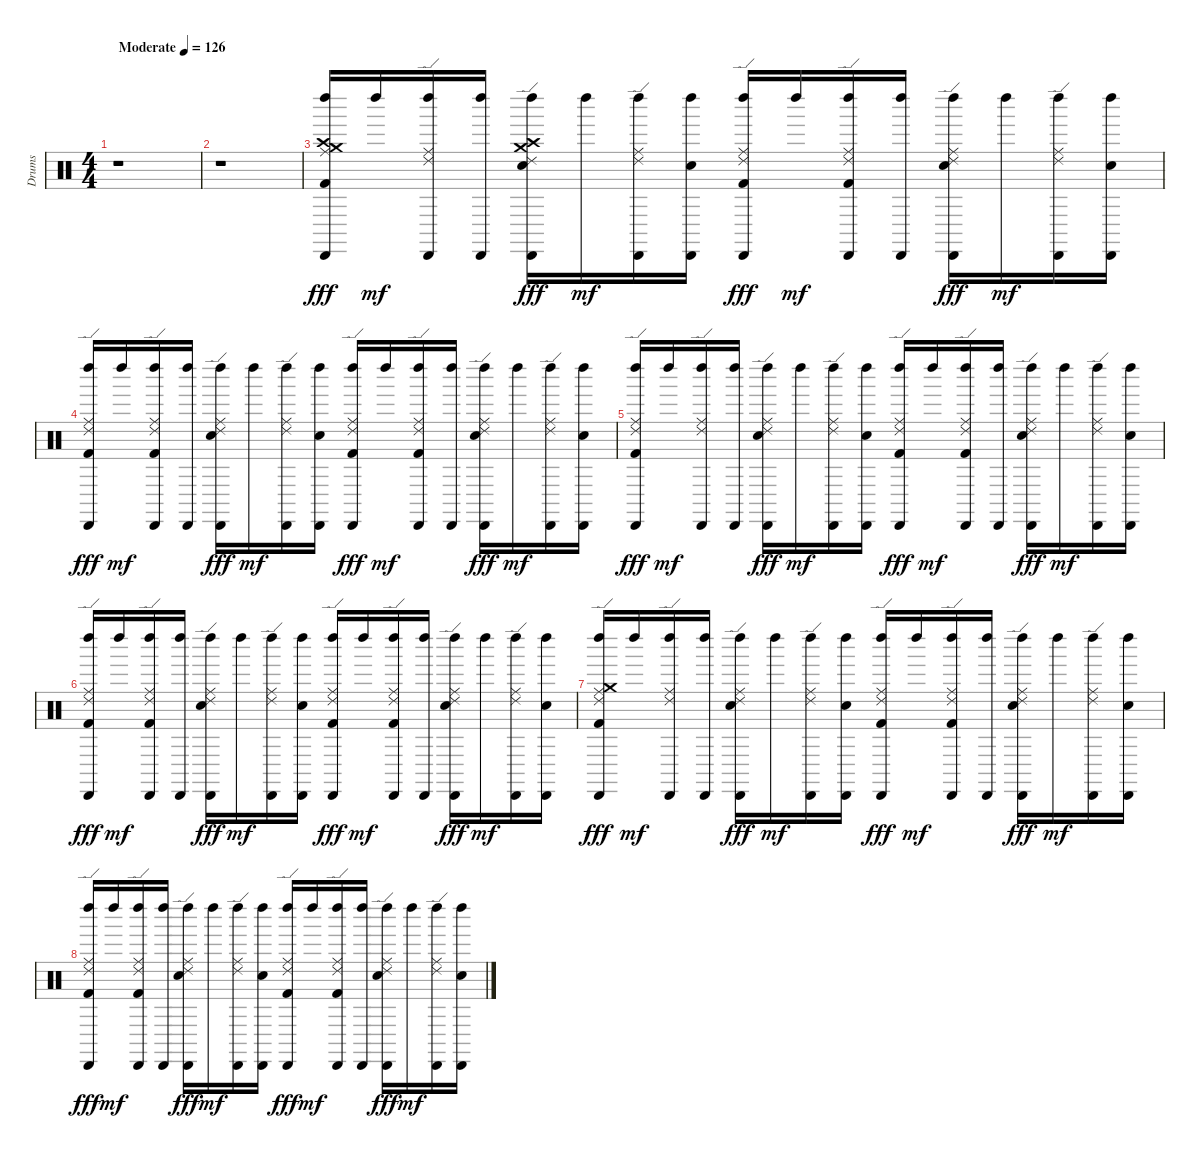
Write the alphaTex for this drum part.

\track ("Drums" "Drums") {instrument percussion}
\staff {score}
\articulation defaults
\ts (4 4)
\tempo (126 "Moderate")
\clef neutral
\ks c
r.1{dy fff} |
r.1 |
("Left Maraca (hit)" "Crash medium (hit)" "Crash high (hit)" "Kick (hit) 2" "Cabasa (hit)" "Ride (middle)").16 "Left Maraca (hit)".16{dy mf} ("Cabasa (hit)" "Left Maraca (hit)" "Ride (edge) 2" "Ride (middle)").16 ("Cabasa (hit)" "Left Maraca (hit)").16 ("Electric Snare (hit)" "Crash medium (hit)" "Crash high (hit)" "Left Maraca (hit)" "Cabasa (hit)" "Ride (edge) 2").16{dy fff} "Left Maraca (hit)".16{dy mf} ("Cabasa (hit)" "Left Maraca (hit)" "Ride (edge) 2" "Ride (middle)").16 ("Cabasa (hit)" "Left Maraca (hit)" "Electric Snare (hit)").16 ("Cabasa (hit)" "Left Maraca (hit)" "Kick (hit) 2" "Ride (middle)" "Ride (edge) 2").16{dy fff} "Left Maraca (hit)".16{dy mf} ("Kick (hit) 2" "Left Maraca (hit)" "Cabasa (hit)" "Ride (middle)" "Ride (edge) 2").16 ("Cabasa (hit)" "Left Maraca (hit)").16 ("Ride (edge) 2" "Electric Snare (hit)" "Ride (middle)" "Cabasa (hit)" "Left Maraca (hit)").16{dy fff} "Left Maraca (hit)".16{dy mf} ("Left Maraca (hit)" "Ride (middle)" "Ride (edge) 2" "Cabasa (hit)").16 ("Electric Snare (hit)" "Left Maraca (hit)" "Cabasa (hit)").16 |
("Cabasa (hit)" "Kick (hit) 2" "Left Maraca (hit)" "Ride (middle)" "Ride (edge) 2").16{dy fff} "Left Maraca (hit)".16{dy mf} ("Kick (hit) 2" "Cabasa (hit)" "Left Maraca (hit)" "Ride (edge) 2" "Ride (middle)").16 ("Cabasa (hit)" "Left Maraca (hit)").16 ("Left Maraca (hit)" "Ride (edge) 2" "Ride (middle)" "Cabasa (hit)" "Electric Snare (hit)").16{dy fff} "Left Maraca (hit)".16{dy mf} ("Ride (edge) 2" "Cabasa (hit)" "Left Maraca (hit)" "Ride (middle)").16 ("Electric Snare (hit)" "Cabasa (hit)" "Left Maraca (hit)").16 ("Kick (hit) 2" "Cabasa (hit)" "Ride (middle)" "Left Maraca (hit)" "Ride (edge) 2").16{dy fff} "Left Maraca (hit)".16{dy mf} ("Cabasa (hit)" "Ride (middle)" "Ride (edge) 2" "Left Maraca (hit)" "Kick (hit) 2").16 ("Left Maraca (hit)" "Cabasa (hit)").16 ("Ride (edge) 2" "Electric Snare (hit)" "Left Maraca (hit)" "Cabasa (hit)" "Ride (middle)").16{dy fff} "Left Maraca (hit)".16{dy mf} ("Left Maraca (hit)" "Cabasa (hit)" "Ride (middle)" "Ride (edge) 2").16 ("Left Maraca (hit)" "Cabasa (hit)" "Electric Snare (hit)").16 |
("Cabasa (hit)" "Kick (hit) 2" "Left Maraca (hit)" "Ride (middle)" "Ride (edge) 2").16{dy fff} "Left Maraca (hit)".16{dy mf} ("Cabasa (hit)" "Left Maraca (hit)" "Ride (edge) 2" "Ride (middle)").16 ("Cabasa (hit)" "Left Maraca (hit)").16 ("Left Maraca (hit)" "Ride (edge) 2" "Ride (middle)" "Cabasa (hit)" "Electric Snare (hit)").16{dy fff} "Left Maraca (hit)".16{dy mf} ("Ride (edge) 2" "Cabasa (hit)" "Left Maraca (hit)" "Ride (middle)").16 ("Electric Snare (hit)" "Cabasa (hit)" "Left Maraca (hit)").16 ("Kick (hit) 2" "Cabasa (hit)" "Ride (middle)" "Left Maraca (hit)" "Ride (edge) 2").16{dy fff} "Left Maraca (hit)".16{dy mf} ("Cabasa (hit)" "Ride (middle)" "Ride (edge) 2" "Left Maraca (hit)" "Kick (hit) 2").16 ("Left Maraca (hit)" "Cabasa (hit)").16 ("Ride (edge) 2" "Electric Snare (hit)" "Left Maraca (hit)" "Cabasa (hit)" "Ride (middle)").16{dy fff} "Left Maraca (hit)".16{dy mf} ("Left Maraca (hit)" "Cabasa (hit)" "Ride (middle)" "Ride (edge) 2").16 ("Left Maraca (hit)" "Cabasa (hit)" "Electric Snare (hit)").16 |
("Cabasa (hit)" "Kick (hit) 2" "Left Maraca (hit)" "Ride (middle)" "Ride (edge) 2").16{dy fff} "Left Maraca (hit)".16{dy mf} ("Kick (hit) 2" "Cabasa (hit)" "Left Maraca (hit)" "Ride (edge) 2" "Ride (middle)").16 ("Cabasa (hit)" "Left Maraca (hit)").16 ("Left Maraca (hit)" "Ride (edge) 2" "Ride (middle)" "Cabasa (hit)" "Electric Snare (hit)").16{dy fff} "Left Maraca (hit)".16{dy mf} ("Ride (edge) 2" "Cabasa (hit)" "Left Maraca (hit)" "Ride (middle)").16 ("Electric Snare (hit)" "Cabasa (hit)" "Left Maraca (hit)").16 ("Kick (hit) 2" "Cabasa (hit)" "Ride (middle)" "Left Maraca (hit)" "Ride (edge) 2").16{dy fff} "Left Maraca (hit)".16{dy mf} ("Cabasa (hit)" "Ride (middle)" "Ride (edge) 2" "Left Maraca (hit)" "Kick (hit) 2").16 ("Left Maraca (hit)" "Cabasa (hit)").16 ("Ride (edge) 2" "Electric Snare (hit)" "Left Maraca (hit)" "Cabasa (hit)" "Ride (middle)").16{dy fff} "Left Maraca (hit)".16{dy mf} ("Left Maraca (hit)" "Cabasa (hit)" "Ride (middle)" "Ride (edge) 2").16 ("Left Maraca (hit)" "Cabasa (hit)" "Electric Snare (hit)").16 |
("Crash medium (hit)" "Cabasa (hit)" "Kick (hit) 2" "Left Maraca (hit)" "Ride (middle)" "Ride (edge) 2").16{dy fff} "Left Maraca (hit)".16{dy mf} ("Cabasa (hit)" "Left Maraca (hit)" "Ride (edge) 2" "Ride (middle)").16 ("Cabasa (hit)" "Left Maraca (hit)").16 ("Left Maraca (hit)" "Ride (edge) 2" "Ride (middle)" "Cabasa (hit)" "Electric Snare (hit)").16{dy fff} "Left Maraca (hit)".16{dy mf} ("Ride (edge) 2" "Cabasa (hit)" "Left Maraca (hit)" "Ride (middle)").16 ("Electric Snare (hit)" "Cabasa (hit)" "Left Maraca (hit)").16 ("Kick (hit) 2" "Cabasa (hit)" "Ride (middle)" "Left Maraca (hit)" "Ride (edge) 2").16{dy fff} "Left Maraca (hit)".16{dy mf} ("Cabasa (hit)" "Ride (middle)" "Ride (edge) 2" "Left Maraca (hit)" "Kick (hit) 2").16 ("Left Maraca (hit)" "Cabasa (hit)").16 ("Ride (edge) 2" "Electric Snare (hit)" "Left Maraca (hit)" "Cabasa (hit)" "Ride (middle)").16{dy fff} "Left Maraca (hit)".16{dy mf} ("Left Maraca (hit)" "Cabasa (hit)" "Ride (middle)" "Ride (edge) 2").16 ("Left Maraca (hit)" "Cabasa (hit)" "Electric Snare (hit)").16 |
("Cabasa (hit)" "Kick (hit) 2" "Left Maraca (hit)" "Ride (middle)" "Ride (edge) 2").16{dy fff} "Left Maraca (hit)".16{dy mf} ("Kick (hit) 2" "Cabasa (hit)" "Left Maraca (hit)" "Ride (edge) 2" "Ride (middle)").16 ("Cabasa (hit)" "Left Maraca (hit)").16 ("Left Maraca (hit)" "Ride (edge) 2" "Ride (middle)" "Cabasa (hit)" "Electric Snare (hit)").16{dy fff} "Left Maraca (hit)".16{dy mf} ("Ride (edge) 2" "Cabasa (hit)" "Left Maraca (hit)" "Ride (middle)").16 ("Electric Snare (hit)" "Cabasa (hit)" "Left Maraca (hit)").16 ("Kick (hit) 2" "Cabasa (hit)" "Ride (middle)" "Left Maraca (hit)" "Ride (edge) 2").16{dy fff} "Left Maraca (hit)".16{dy mf} ("Cabasa (hit)" "Ride (middle)" "Ride (edge) 2" "Left Maraca (hit)" "Kick (hit) 2").16 ("Left Maraca (hit)" "Cabasa (hit)").16 ("Ride (edge) 2" "Electric Snare (hit)" "Left Maraca (hit)" "Cabasa (hit)" "Ride (middle)").16{dy fff} "Left Maraca (hit)".16{dy mf} ("Left Maraca (hit)" "Cabasa (hit)" "Ride (middle)" "Ride (edge) 2").16 ("Left Maraca (hit)" "Cabasa (hit)" "Electric Snare (hit)").16
